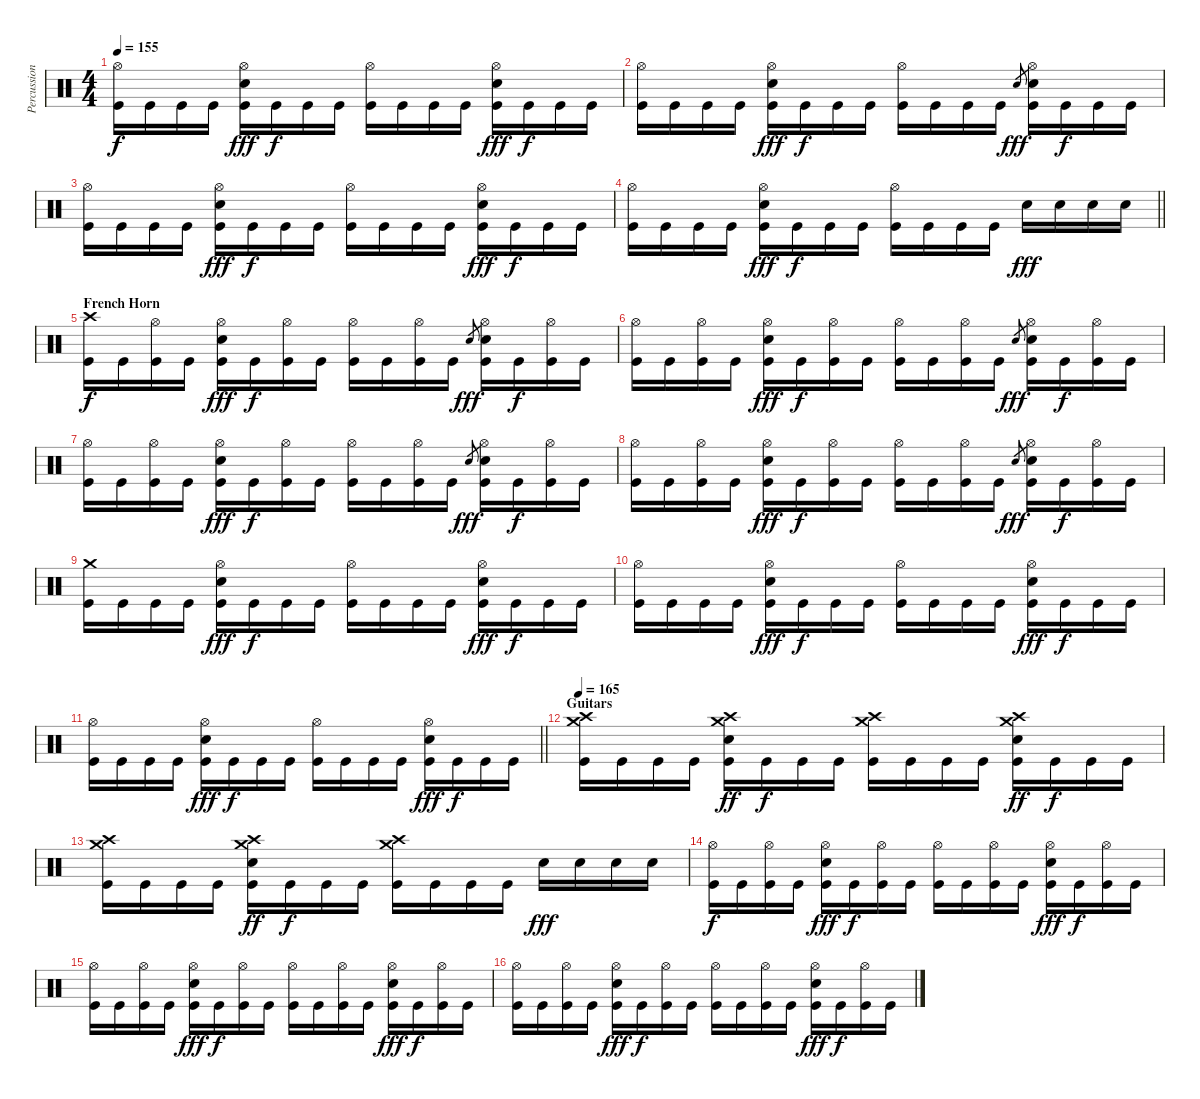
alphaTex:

\track ("Percussions" "Percussion") {instrument percussion}
\staff {score}
\articulation defaults
\ts (4 4)
\tempo 155
\clef neutral
\ks c
("Hi-Hat (open)" "Kick (hit)").16{dy f} "Kick (hit)".16 "Kick (hit)".16 "Kick (hit)".16 ("Hi-Hat (open)" "Electric Snare (hit)" "Kick (hit)").16{dy fff} "Kick (hit)".16{dy f} "Kick (hit)".16 "Kick (hit)".16 ("Hi-Hat (open)" "Kick (hit)").16 "Kick (hit)".16 "Kick (hit)".16 "Kick (hit)".16 ("Hi-Hat (open)" "Electric Snare (hit)" "Kick (hit)").16{dy fff} "Kick (hit)".16{dy f} "Kick (hit)".16 "Kick (hit)".16 |
("Hi-Hat (open)" "Kick (hit)").16 "Kick (hit)".16 "Kick (hit)".16 "Kick (hit)".16 ("Hi-Hat (open)" "Electric Snare (hit)" "Kick (hit)").16{dy fff} "Kick (hit)".16{dy f} "Kick (hit)".16 "Kick (hit)".16 ("Hi-Hat (open)" "Kick (hit)").16 "Kick (hit)".16 "Kick (hit)".16 "Kick (hit)".16 "Electric Snare (hit)".8{gr dy fff} ("Hi-Hat (open)" "Electric Snare (hit)" "Kick (hit)").16 "Kick (hit)".16{dy f} "Kick (hit)".16 "Kick (hit)".16 |
("Hi-Hat (open)" "Kick (hit)").16 "Kick (hit)".16 "Kick (hit)".16 "Kick (hit)".16 ("Hi-Hat (open)" "Electric Snare (hit)" "Kick (hit)").16{dy fff} "Kick (hit)".16{dy f} "Kick (hit)".16 "Kick (hit)".16 ("Hi-Hat (open)" "Kick (hit)").16 "Kick (hit)".16 "Kick (hit)".16 "Kick (hit)".16 ("Hi-Hat (open)" "Electric Snare (hit)" "Kick (hit)").16{dy fff} "Kick (hit)".16{dy f} "Kick (hit)".16 "Kick (hit)".16 |
\barLineRight lightlight
("Hi-Hat (open)" "Kick (hit)").16 "Kick (hit)".16 "Kick (hit)".16 "Kick (hit)".16 ("Hi-Hat (open)" "Electric Snare (hit)" "Kick (hit)").16{dy fff} "Kick (hit)".16{dy f} "Kick (hit)".16 "Kick (hit)".16 ("Hi-Hat (open)" "Kick (hit)").16 "Kick (hit)".16 "Kick (hit)".16 "Kick (hit)".16 "Electric Snare (hit)".16{dy fff} "Electric Snare (hit)".16 "Electric Snare (hit)".16 "Electric Snare (hit)".16 |
\section ("" "French Horn ")
("Crash high (hit)" "Kick (hit)").16{dy f} "Kick (hit)".16 ("Hi-Hat (open)" "Kick (hit)").16 "Kick (hit)".16 ("Hi-Hat (open)" "Electric Snare (hit)" "Kick (hit)").16{dy fff} "Kick (hit)".16{dy f} ("Hi-Hat (open)" "Kick (hit)").16 "Kick (hit)".16 ("Hi-Hat (open)" "Kick (hit)").16 "Kick (hit)".16 ("Hi-Hat (open)" "Kick (hit)").16 "Kick (hit)".16 "Electric Snare (hit)".8{gr dy fff} ("Hi-Hat (open)" "Electric Snare (hit)" "Kick (hit)").16 "Kick (hit)".16{dy f} ("Hi-Hat (open)" "Kick (hit)").16 "Kick (hit)".16 |
("Hi-Hat (open)" "Kick (hit)").16 "Kick (hit)".16 ("Hi-Hat (open)" "Kick (hit)").16 "Kick (hit)".16 ("Hi-Hat (open)" "Electric Snare (hit)" "Kick (hit)").16{dy fff} "Kick (hit)".16{dy f} ("Hi-Hat (open)" "Kick (hit)").16 "Kick (hit)".16 ("Hi-Hat (open)" "Kick (hit)").16 "Kick (hit)".16 ("Hi-Hat (open)" "Kick (hit)").16 "Kick (hit)".16 "Electric Snare (hit)".8{gr dy fff} ("Hi-Hat (open)" "Electric Snare (hit)" "Kick (hit)").16 "Kick (hit)".16{dy f} ("Hi-Hat (open)" "Kick (hit)").16 "Kick (hit)".16 |
("Hi-Hat (open)" "Kick (hit)").16 "Kick (hit)".16 ("Hi-Hat (open)" "Kick (hit)").16 "Kick (hit)".16 ("Hi-Hat (open)" "Electric Snare (hit)" "Kick (hit)").16{dy fff} "Kick (hit)".16{dy f} ("Hi-Hat (open)" "Kick (hit)").16 "Kick (hit)".16 ("Hi-Hat (open)" "Kick (hit)").16 "Kick (hit)".16 ("Hi-Hat (open)" "Kick (hit)").16 "Kick (hit)".16 "Electric Snare (hit)".8{gr dy fff} ("Hi-Hat (open)" "Electric Snare (hit)" "Kick (hit)").16 "Kick (hit)".16{dy f} ("Hi-Hat (open)" "Kick (hit)").16 "Kick (hit)".16 |
("Hi-Hat (open)" "Kick (hit)").16 "Kick (hit)".16 ("Hi-Hat (open)" "Kick (hit)").16 "Kick (hit)".16 ("Hi-Hat (open)" "Electric Snare (hit)" "Kick (hit)").16{dy fff} "Kick (hit)".16{dy f} ("Hi-Hat (open)" "Kick (hit)").16 "Kick (hit)".16 ("Hi-Hat (open)" "Kick (hit)").16 "Kick (hit)".16 ("Hi-Hat (open)" "Kick (hit)").16 "Kick (hit)".16 "Electric Snare (hit)".8{gr dy fff} ("Hi-Hat (open)" "Electric Snare (hit)" "Kick (hit)").16 "Kick (hit)".16{dy f} ("Hi-Hat (open)" "Kick (hit)").16 "Kick (hit)".16 |
("Crash medium (hit)" "Kick (hit)").16 "Kick (hit)".16 "Kick (hit)".16 "Kick (hit)".16 ("Hi-Hat (open)" "Electric Snare (hit)" "Kick (hit)").16{dy fff} "Kick (hit)".16{dy f} "Kick (hit)".16 "Kick (hit)".16 ("Hi-Hat (open)" "Kick (hit)").16 "Kick (hit)".16 "Kick (hit)".16 "Kick (hit)".16 ("Hi-Hat (open)" "Electric Snare (hit)" "Kick (hit)").16{dy fff} "Kick (hit)".16{dy f} "Kick (hit)".16 "Kick (hit)".16 |
("Hi-Hat (open)" "Kick (hit)").16 "Kick (hit)".16 "Kick (hit)".16 "Kick (hit)".16 ("Hi-Hat (open)" "Electric Snare (hit)" "Kick (hit)").16{dy fff} "Kick (hit)".16{dy f} "Kick (hit)".16 "Kick (hit)".16 ("Hi-Hat (open)" "Kick (hit)").16 "Kick (hit)".16 "Kick (hit)".16 "Kick (hit)".16 ("Hi-Hat (open)" "Electric Snare (hit)" "Kick (hit)").16{dy fff} "Kick (hit)".16{dy f} "Kick (hit)".16 "Kick (hit)".16 |
\barLineRight lightlight
("Hi-Hat (open)" "Kick (hit)").16 "Kick (hit)".16 "Kick (hit)".16 "Kick (hit)".16 ("Hi-Hat (open)" "Electric Snare (hit)" "Kick (hit)").16{dy fff} "Kick (hit)".16{dy f} "Kick (hit)".16 "Kick (hit)".16 ("Hi-Hat (open)" "Kick (hit)").16 "Kick (hit)".16 "Kick (hit)".16 "Kick (hit)".16 ("Hi-Hat (open)" "Electric Snare (hit)" "Kick (hit)").16{dy fff} "Kick (hit)".16{dy f} "Kick (hit)".16 "Kick (hit)".16 |
\section ("" "Guitars")
\tempo 165
("Crash high (hit)" "Crash medium (hit)" "Kick (hit)").16 "Kick (hit)".16 "Kick (hit)".16 "Kick (hit)".16 ("Electric Snare (hit)" "Crash high (hit)" "Crash medium (hit)" "Kick (hit)").16{dy ff} "Kick (hit)".16{dy f} "Kick (hit)".16 "Kick (hit)".16 ("Crash high (hit)" "Crash medium (hit)" "Kick (hit)").16 "Kick (hit)".16 "Kick (hit)".16 "Kick (hit)".16 ("Electric Snare (hit)" "Crash high (hit)" "Crash medium (hit)" "Kick (hit)").16{dy ff} "Kick (hit)".16{dy f} "Kick (hit)".16 "Kick (hit)".16 |
("Crash high (hit)" "Crash medium (hit)" "Kick (hit)").16 "Kick (hit)".16 "Kick (hit)".16 "Kick (hit)".16 ("Electric Snare (hit)" "Crash high (hit)" "Crash medium (hit)" "Kick (hit)").16{dy ff} "Kick (hit)".16{dy f} "Kick (hit)".16 "Kick (hit)".16 ("Crash high (hit)" "Crash medium (hit)" "Kick (hit)").16 "Kick (hit)".16 "Kick (hit)".16 "Kick (hit)".16 "Electric Snare (hit)".16{dy fff} "Electric Snare (hit)".16 "Electric Snare (hit)".16 "Electric Snare (hit)".16 |
("Hi-Hat (open)" "Kick (hit)").16{dy f} "Kick (hit)".16 ("Hi-Hat (open)" "Kick (hit)").16 "Kick (hit)".16 ("Hi-Hat (open)" "Electric Snare (hit)" "Kick (hit)").16{dy fff} "Kick (hit)".16{dy f} ("Hi-Hat (open)" "Kick (hit)").16 "Kick (hit)".16 ("Hi-Hat (open)" "Kick (hit)").16 "Kick (hit)".16 ("Hi-Hat (open)" "Kick (hit)").16 "Kick (hit)".16 ("Hi-Hat (open)" "Electric Snare (hit)" "Kick (hit)").16{dy fff} "Kick (hit)".16{dy f} ("Hi-Hat (open)" "Kick (hit)").16 "Kick (hit)".16 |
("Hi-Hat (open)" "Kick (hit)").16 "Kick (hit)".16 ("Hi-Hat (open)" "Kick (hit)").16 "Kick (hit)".16 ("Hi-Hat (open)" "Electric Snare (hit)" "Kick (hit)").16{dy fff} "Kick (hit)".16{dy f} ("Hi-Hat (open)" "Kick (hit)").16 "Kick (hit)".16 ("Hi-Hat (open)" "Kick (hit)").16 "Kick (hit)".16 ("Hi-Hat (open)" "Kick (hit)").16 "Kick (hit)".16 ("Hi-Hat (open)" "Electric Snare (hit)" "Kick (hit)").16{dy fff} "Kick (hit)".16{dy f} ("Hi-Hat (open)" "Kick (hit)").16 "Kick (hit)".16 |
("Hi-Hat (open)" "Kick (hit)").16 "Kick (hit)".16 ("Hi-Hat (open)" "Kick (hit)").16 "Kick (hit)".16 ("Hi-Hat (open)" "Electric Snare (hit)" "Kick (hit)").16{dy fff} "Kick (hit)".16{dy f} ("Hi-Hat (open)" "Kick (hit)").16 "Kick (hit)".16 ("Hi-Hat (open)" "Kick (hit)").16 "Kick (hit)".16 ("Hi-Hat (open)" "Kick (hit)").16 "Kick (hit)".16 ("Hi-Hat (open)" "Electric Snare (hit)" "Kick (hit)").16{dy fff} "Kick (hit)".16{dy f} ("Hi-Hat (open)" "Kick (hit)").16 "Kick (hit)".16
